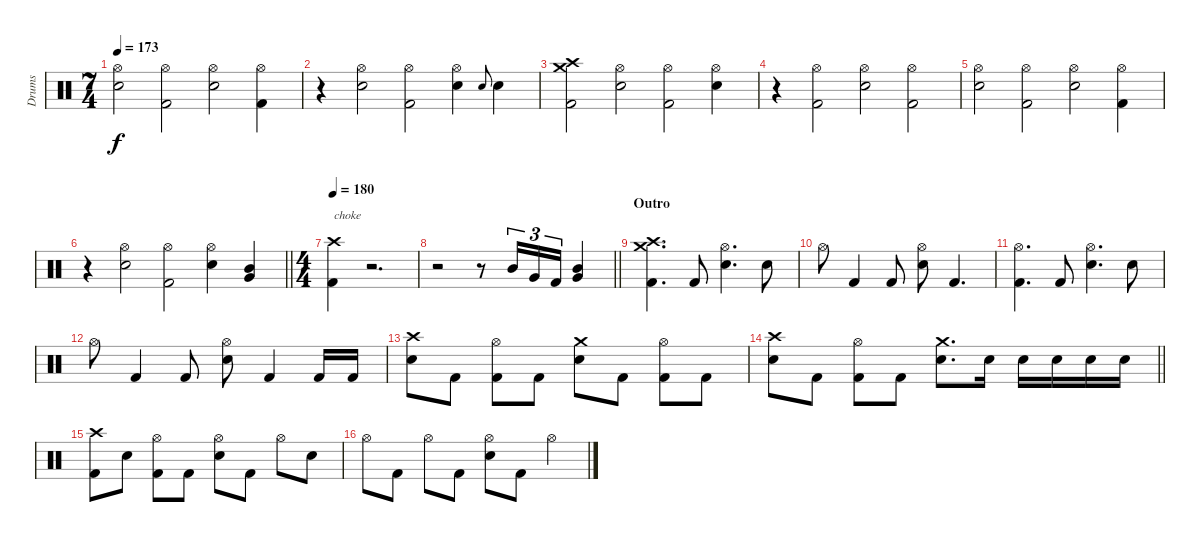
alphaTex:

\track ("Drums" "Drums") {instrument percussion}
\staff {score}
\articulation defaults
\ts (7 4)
\tempo 173
\clef neutral
\ks c
("Hi-Hat (open)" "Electric Snare (hit)").2{dy f} ("Hi-Hat (open)" "Kick (hit) 2").2 ("Hi-Hat (open)" "Electric Snare (hit)").2 ("Hi-Hat (open)" "Kick (hit) 2").4 |
r.4 ("Hi-Hat (open)" "Electric Snare (hit)").2 ("Hi-Hat (open)" "Kick (hit) 2").2 ("Hi-Hat (open)" "Electric Snare (hit)").4 "Electric Snare (hit)".8{gr onbeat} "Electric Snare (hit)".4 |
("Crash high (hit)" "Crash medium (hit)" "Kick (hit) 2").2 ("Hi-Hat (open)" "Electric Snare (hit)").2 ("Hi-Hat (open)" "Kick (hit) 2").2 ("Hi-Hat (open)" "Electric Snare (hit)").4 |
r.4 ("Hi-Hat (open)" "Kick (hit) 2").2 ("Hi-Hat (open)" "Electric Snare (hit)").2 ("Hi-Hat (open)" "Kick (hit) 2").2 |
("Hi-Hat (open)" "Electric Snare (hit)").2 ("Hi-Hat (open)" "Kick (hit) 2").2 ("Hi-Hat (open)" "Electric Snare (hit)").2 ("Hi-Hat (open)" "Kick (hit) 2").4 |
\barLineRight lightlight
r.4 ("Hi-Hat (open)" "Electric Snare (hit)").2 ("Hi-Hat (open)" "Kick (hit) 2").2 ("Hi-Hat (open)" "Electric Snare (hit)").4 ("Very Low Tom (hit)" "Mid Tom (hit)").4{bd 30} |
\ts (4 4)
\section ("" "")
\tempo 180
("Crash high (hit)" "Kick (hit) 2").4{txt "choke"} r.2{d volume 0} |
\barLineRight lightlight
r.2 r.8 "Mid Tom (hit)".16{tu (3 2) volume 14} "Very Low Tom (hit)".16{tu (3 2)} "Kick (hit) 2".16{tu (3 2)} ("Very Low Tom (hit)" "Mid Tom (hit)").4{bd 30} |
\section ("" "Outro")
("Crash high (hit)" "Crash medium (hit)" "Kick (hit) 2").4{d} "Kick (hit) 2".8 ("Hi-Hat (open)" "Electric Snare (hit)").4{d} "Electric Snare (hit)".8 |
"Hi-Hat (open)".8 "Kick (hit) 2".4 "Kick (hit) 2".8 ("Hi-Hat (open)" "Electric Snare (hit)").8 "Kick (hit) 2".4{d} |
("Hi-Hat (open)" "Kick (hit) 2").4{d} "Kick (hit) 2".8 ("Hi-Hat (open)" "Electric Snare (hit)").4{d} "Electric Snare (hit)".8 |
"Hi-Hat (open)".8 "Kick (hit) 2".4 "Kick (hit) 2".8 ("Hi-Hat (open)" "Electric Snare (hit)").8 "Kick (hit) 2".4 "Kick (hit) 2".16 "Kick (hit) 2".16 |
("Crash high (hit)" "Electric Snare (hit)").8 "Kick (hit) 2".8 ("Hi-Hat (open)" "Kick (hit) 2").8 "Kick (hit) 2".8 ("Crash medium (hit)" "Electric Snare (hit)").8 "Kick (hit) 2".8 ("Hi-Hat (open)" "Kick (hit) 2").8 "Kick (hit) 2".8 |
\barLineRight lightlight
("Crash high (hit)" "Electric Snare (hit)").8 "Kick (hit) 2".8 ("Hi-Hat (open)" "Kick (hit) 2").8 "Kick (hit) 2".8 ("Crash medium (hit)" "Electric Snare (hit)").8{d} "Electric Snare (hit)".16 "Electric Snare (hit)".16 "Electric Snare (hit)".16 "Electric Snare (hit)".16 "Electric Snare (hit)".16 |
\section ("" "")
("Crash high (hit)" "Kick (hit) 2").8 "Electric Snare (hit)".8 ("Hi-Hat (open)" "Kick (hit) 2").8 "Kick (hit) 2".8 ("Hi-Hat (open)" "Electric Snare (hit)").8 "Kick (hit) 2".8 "Hi-Hat (open)".8 "Electric Snare (hit)".8 |
"Hi-Hat (open)".8 "Kick (hit) 2".8 "Hi-Hat (open)".8 "Kick (hit) 2".8 ("Hi-Hat (open)" "Electric Snare (hit)").8 "Kick (hit) 2".8 "Hi-Hat (open)".4
